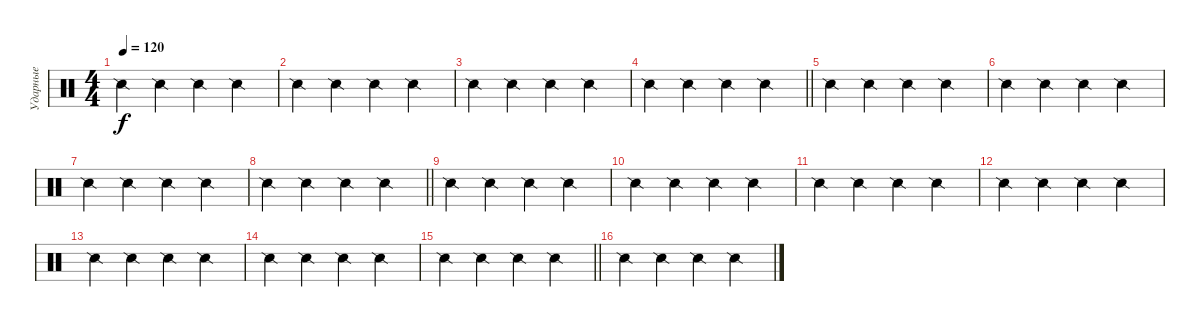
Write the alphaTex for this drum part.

\track ("Ударные" "Ударные") {instrument percussion}
\staff {score}
\articulation defaults
\ts (4 4)
\tempo 120
\clef neutral
\ks c "Snare (side stick) 2".4{dy f} "Snare (side stick) 2".4 "Snare (side stick) 2".4 "Snare (side stick) 2".4
|
"Snare (side stick) 2".4 "Snare (side stick) 2".4 "Snare (side stick) 2".4 "Snare (side stick) 2".4 |
"Snare (side stick) 2".4 "Snare (side stick) 2".4 "Snare (side stick) 2".4 "Snare (side stick) 2".4 |
\barLineRight lightlight "Snare (side stick) 2".4 "Snare (side stick) 2".4 "Snare (side stick) 2".4 "Snare (side stick) 2".4
|
"Snare (side stick) 2".4 "Snare (side stick) 2".4 "Snare (side stick) 2".4 "Snare (side stick) 2".4 |
"Snare (side stick) 2".4 "Snare (side stick) 2".4 "Snare (side stick) 2".4 "Snare (side stick) 2".4 |
"Snare (side stick) 2".4 "Snare (side stick) 2".4 "Snare (side stick) 2".4 "Snare (side stick) 2".4 |
\barLineRight lightlight "Snare (side stick) 2".4 "Snare (side stick) 2".4 "Snare (side stick) 2".4 "Snare (side stick) 2".4
|
"Snare (side stick) 2".4 "Snare (side stick) 2".4 "Snare (side stick) 2".4 "Snare (side stick) 2".4 |
"Snare (side stick) 2".4 "Snare (side stick) 2".4 "Snare (side stick) 2".4 "Snare (side stick) 2".4 |
"Snare (side stick) 2".4 "Snare (side stick) 2".4 "Snare (side stick) 2".4 "Snare (side stick) 2".4 |
"Snare (side stick) 2".4 "Snare (side stick) 2".4 "Snare (side stick) 2".4 "Snare (side stick) 2".4 |
"Snare (side stick) 2".4 "Snare (side stick) 2".4 "Snare (side stick) 2".4 "Snare (side stick) 2".4 |
"Snare (side stick) 2".4 "Snare (side stick) 2".4 "Snare (side stick) 2".4 "Snare (side stick) 2".4 |
\barLineRight lightlight "Snare (side stick) 2".4 "Snare (side stick) 2".4 "Snare (side stick) 2".4 "Snare (side stick) 2".4
|
"Snare (side stick) 2".4 "Snare (side stick) 2".4 "Snare (side stick) 2".4 "Snare (side stick) 2".4
